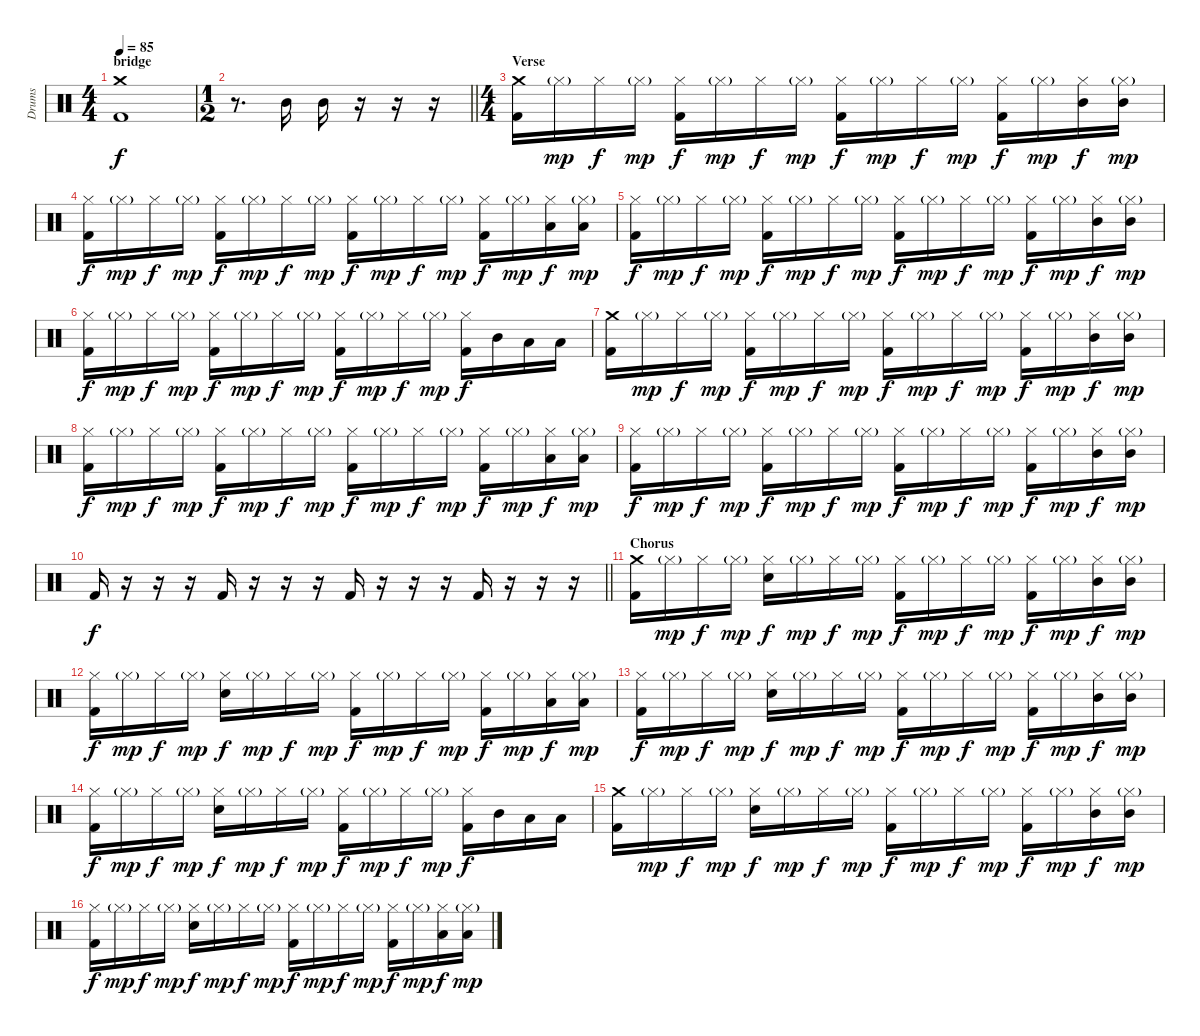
\track ("Drums" "Drums") {instrument percussion}
\staff {score}
\articulation defaults
\ts (4 4)
\section ("" "bridge")
\tempo 85
\clef neutral
\ks c
("Kick (hit) 2" "Crash medium (hit)").1{dy f} |
\ts (1 2)
\barLineRight lightlight
r.8{d} "Mid Tom (hit)".16 "Mid Tom (hit)".16 r.16 r.16 r.16 |
\ts (4 4)
\section ("" "Verse")
("Kick (hit) 2" "Crash medium (hit)").16 "Hi-Hat (closed)"{g}.16{dy mp} "Hi-Hat (closed)".16{dy f} "Hi-Hat (closed)"{g}.16{dy mp} ("Kick (hit) 2" "Hi-Hat (closed)").16{dy f} "Hi-Hat (closed)"{g}.16{dy mp} "Hi-Hat (closed)".16{dy f} "Hi-Hat (closed)"{g}.16{dy mp} ("Kick (hit) 2" "Hi-Hat (closed)").16{dy f} "Hi-Hat (closed)"{g}.16{dy mp} "Hi-Hat (closed)".16{dy f} "Hi-Hat (closed)"{g}.16{dy mp} ("Kick (hit) 2" "Hi-Hat (closed)").16{dy f} "Hi-Hat (closed)"{g}.16{dy mp} ("Hi-Hat (closed)" "Mid Tom (hit)").16{dy f} ("Hi-Hat (closed)"{g} "Mid Tom (hit)").16{dy mp} |
("Kick (hit) 2" "Hi-Hat (closed)").16{dy f} "Hi-Hat (closed)"{g}.16{dy mp} "Hi-Hat (closed)".16{dy f} "Hi-Hat (closed)"{g}.16{dy mp} ("Kick (hit) 2" "Hi-Hat (closed)").16{dy f} "Hi-Hat (closed)"{g}.16{dy mp} "Hi-Hat (closed)".16{dy f} "Hi-Hat (closed)"{g}.16{dy mp} ("Kick (hit) 2" "Hi-Hat (closed)").16{dy f} "Hi-Hat (closed)"{g}.16{dy mp} "Hi-Hat (closed)".16{dy f} "Hi-Hat (closed)"{g}.16{dy mp} ("Kick (hit) 2" "Hi-Hat (closed)").16{dy f} "Hi-Hat (closed)"{g}.16{dy mp} ("Hi-Hat (closed)" "Low Tom (hit)").16{dy f} ("Hi-Hat (closed)"{g} "Low Tom (hit)").16{dy mp} |
("Kick (hit) 2" "Hi-Hat (closed)").16{dy f} "Hi-Hat (closed)"{g}.16{dy mp} "Hi-Hat (closed)".16{dy f} "Hi-Hat (closed)"{g}.16{dy mp} ("Kick (hit) 2" "Hi-Hat (closed)").16{dy f} "Hi-Hat (closed)"{g}.16{dy mp} "Hi-Hat (closed)".16{dy f} "Hi-Hat (closed)"{g}.16{dy mp} ("Kick (hit) 2" "Hi-Hat (closed)").16{dy f} "Hi-Hat (closed)"{g}.16{dy mp} "Hi-Hat (closed)".16{dy f} "Hi-Hat (closed)"{g}.16{dy mp} ("Kick (hit) 2" "Hi-Hat (closed)").16{dy f} "Hi-Hat (closed)"{g}.16{dy mp} ("Hi-Hat (closed)" "Mid Tom (hit)").16{dy f} ("Hi-Hat (closed)"{g} "Mid Tom (hit)").16{dy mp} |
("Kick (hit) 2" "Hi-Hat (closed)").16{dy f} "Hi-Hat (closed)"{g}.16{dy mp} "Hi-Hat (closed)".16{dy f} "Hi-Hat (closed)"{g}.16{dy mp} ("Kick (hit) 2" "Hi-Hat (closed)").16{dy f} "Hi-Hat (closed)"{g}.16{dy mp} "Hi-Hat (closed)".16{dy f} "Hi-Hat (closed)"{g}.16{dy mp} ("Kick (hit) 2" "Hi-Hat (closed)").16{dy f} "Hi-Hat (closed)"{g}.16{dy mp} "Hi-Hat (closed)".16{dy f} "Hi-Hat (closed)"{g}.16{dy mp} ("Kick (hit) 2" "Hi-Hat (closed)").16{dy f} "Mid Tom (hit)".16 "Low Tom (hit)".16 "Low Tom (hit)".16 |
("Kick (hit) 2" "Crash medium (hit)").16 "Hi-Hat (closed)"{g}.16{dy mp} "Hi-Hat (closed)".16{dy f} "Hi-Hat (closed)"{g}.16{dy mp} ("Kick (hit) 2" "Hi-Hat (closed)").16{dy f} "Hi-Hat (closed)"{g}.16{dy mp} "Hi-Hat (closed)".16{dy f} "Hi-Hat (closed)"{g}.16{dy mp} ("Kick (hit) 2" "Hi-Hat (closed)").16{dy f} "Hi-Hat (closed)"{g}.16{dy mp} "Hi-Hat (closed)".16{dy f} "Hi-Hat (closed)"{g}.16{dy mp} ("Kick (hit) 2" "Hi-Hat (closed)").16{dy f} "Hi-Hat (closed)"{g}.16{dy mp} ("Hi-Hat (closed)" "Mid Tom (hit)").16{dy f} ("Hi-Hat (closed)"{g} "Mid Tom (hit)").16{dy mp} |
("Kick (hit) 2" "Hi-Hat (closed)").16{dy f} "Hi-Hat (closed)"{g}.16{dy mp} "Hi-Hat (closed)".16{dy f} "Hi-Hat (closed)"{g}.16{dy mp} ("Kick (hit) 2" "Hi-Hat (closed)").16{dy f} "Hi-Hat (closed)"{g}.16{dy mp} "Hi-Hat (closed)".16{dy f} "Hi-Hat (closed)"{g}.16{dy mp} ("Kick (hit) 2" "Hi-Hat (closed)").16{dy f} "Hi-Hat (closed)"{g}.16{dy mp} "Hi-Hat (closed)".16{dy f} "Hi-Hat (closed)"{g}.16{dy mp} ("Kick (hit) 2" "Hi-Hat (closed)").16{dy f} "Hi-Hat (closed)"{g}.16{dy mp} ("Hi-Hat (closed)" "Low Tom (hit)").16{dy f} ("Hi-Hat (closed)"{g} "Low Tom (hit)").16{dy mp} |
("Kick (hit) 2" "Hi-Hat (closed)").16{dy f} "Hi-Hat (closed)"{g}.16{dy mp} "Hi-Hat (closed)".16{dy f} "Hi-Hat (closed)"{g}.16{dy mp} ("Kick (hit) 2" "Hi-Hat (closed)").16{dy f} "Hi-Hat (closed)"{g}.16{dy mp} "Hi-Hat (closed)".16{dy f} "Hi-Hat (closed)"{g}.16{dy mp} ("Kick (hit) 2" "Hi-Hat (closed)").16{dy f} "Hi-Hat (closed)"{g}.16{dy mp} "Hi-Hat (closed)".16{dy f} "Hi-Hat (closed)"{g}.16{dy mp} ("Kick (hit) 2" "Hi-Hat (closed)").16{dy f} "Hi-Hat (closed)"{g}.16{dy mp} ("Hi-Hat (closed)" "Mid Tom (hit)").16{dy f} ("Hi-Hat (closed)"{g} "Mid Tom (hit)").16{dy mp} |
\barLineRight lightlight "Kick (hit) 2".16{dy f}
r.16 r.16 r.16 "Kick (hit) 2".16 r.16 r.16 r.16 "Kick (hit) 2".16 r.16 r.16 r.16 "Kick (hit) 2".16 r.16 r.16 r.16 |
\section ("" "Chorus")
("Kick (hit) 2" "Crash medium (hit)").16 "Hi-Hat (closed)"{g}.16{dy mp} "Hi-Hat (closed)".16{dy f} "Hi-Hat (closed)"{g}.16{dy mp} ("Electric Snare (hit)" "Hi-Hat (closed)").16{dy f} "Hi-Hat (closed)"{g}.16{dy mp} "Hi-Hat (closed)".16{dy f} "Hi-Hat (closed)"{g}.16{dy mp} ("Kick (hit) 2" "Hi-Hat (closed)").16{dy f} "Hi-Hat (closed)"{g}.16{dy mp} "Hi-Hat (closed)".16{dy f} "Hi-Hat (closed)"{g}.16{dy mp} ("Kick (hit) 2" "Hi-Hat (closed)").16{dy f} "Hi-Hat (closed)"{g}.16{dy mp} ("Hi-Hat (closed)" "Mid Tom (hit)").16{dy f} ("Hi-Hat (closed)"{g} "Mid Tom (hit)").16{dy mp} |
("Kick (hit) 2" "Hi-Hat (closed)").16{dy f} "Hi-Hat (closed)"{g}.16{dy mp} "Hi-Hat (closed)".16{dy f} "Hi-Hat (closed)"{g}.16{dy mp} ("Electric Snare (hit)" "Hi-Hat (closed)").16{dy f} "Hi-Hat (closed)"{g}.16{dy mp} "Hi-Hat (closed)".16{dy f} "Hi-Hat (closed)"{g}.16{dy mp} ("Kick (hit) 2" "Hi-Hat (closed)").16{dy f} "Hi-Hat (closed)"{g}.16{dy mp} "Hi-Hat (closed)".16{dy f} "Hi-Hat (closed)"{g}.16{dy mp} ("Kick (hit) 2" "Hi-Hat (closed)").16{dy f} "Hi-Hat (closed)"{g}.16{dy mp} ("Hi-Hat (closed)" "Low Tom (hit)").16{dy f} ("Hi-Hat (closed)"{g} "Low Tom (hit)").16{dy mp} |
("Kick (hit) 2" "Hi-Hat (closed)").16{dy f} "Hi-Hat (closed)"{g}.16{dy mp} "Hi-Hat (closed)".16{dy f} "Hi-Hat (closed)"{g}.16{dy mp} ("Electric Snare (hit)" "Hi-Hat (closed)").16{dy f} "Hi-Hat (closed)"{g}.16{dy mp} "Hi-Hat (closed)".16{dy f} "Hi-Hat (closed)"{g}.16{dy mp} ("Kick (hit) 2" "Hi-Hat (closed)").16{dy f} "Hi-Hat (closed)"{g}.16{dy mp} "Hi-Hat (closed)".16{dy f} "Hi-Hat (closed)"{g}.16{dy mp} ("Kick (hit) 2" "Hi-Hat (closed)").16{dy f} "Hi-Hat (closed)"{g}.16{dy mp} ("Hi-Hat (closed)" "Mid Tom (hit)").16{dy f} ("Hi-Hat (closed)"{g} "Mid Tom (hit)").16{dy mp} |
("Kick (hit) 2" "Hi-Hat (closed)").16{dy f} "Hi-Hat (closed)"{g}.16{dy mp} "Hi-Hat (closed)".16{dy f} "Hi-Hat (closed)"{g}.16{dy mp} ("Electric Snare (hit)" "Hi-Hat (closed)").16{dy f} "Hi-Hat (closed)"{g}.16{dy mp} "Hi-Hat (closed)".16{dy f} "Hi-Hat (closed)"{g}.16{dy mp} ("Kick (hit) 2" "Hi-Hat (closed)").16{dy f} "Hi-Hat (closed)"{g}.16{dy mp} "Hi-Hat (closed)".16{dy f} "Hi-Hat (closed)"{g}.16{dy mp} ("Kick (hit) 2" "Hi-Hat (closed)").16{dy f} "Mid Tom (hit)".16 "Low Tom (hit)".16 "Low Tom (hit)".16 |
("Kick (hit) 2" "Crash medium (hit)").16 "Hi-Hat (closed)"{g}.16{dy mp} "Hi-Hat (closed)".16{dy f} "Hi-Hat (closed)"{g}.16{dy mp} ("Electric Snare (hit)" "Hi-Hat (closed)").16{dy f} "Hi-Hat (closed)"{g}.16{dy mp} "Hi-Hat (closed)".16{dy f} "Hi-Hat (closed)"{g}.16{dy mp} ("Kick (hit) 2" "Hi-Hat (closed)").16{dy f} "Hi-Hat (closed)"{g}.16{dy mp} "Hi-Hat (closed)".16{dy f} "Hi-Hat (closed)"{g}.16{dy mp} ("Kick (hit) 2" "Hi-Hat (closed)").16{dy f} "Hi-Hat (closed)"{g}.16{dy mp} ("Hi-Hat (closed)" "Mid Tom (hit)").16{dy f} ("Hi-Hat (closed)"{g} "Mid Tom (hit)").16{dy mp} |
("Kick (hit) 2" "Hi-Hat (closed)").16{dy f} "Hi-Hat (closed)"{g}.16{dy mp} "Hi-Hat (closed)".16{dy f} "Hi-Hat (closed)"{g}.16{dy mp} ("Electric Snare (hit)" "Hi-Hat (closed)").16{dy f} "Hi-Hat (closed)"{g}.16{dy mp} "Hi-Hat (closed)".16{dy f} "Hi-Hat (closed)"{g}.16{dy mp} ("Kick (hit) 2" "Hi-Hat (closed)").16{dy f} "Hi-Hat (closed)"{g}.16{dy mp} "Hi-Hat (closed)".16{dy f} "Hi-Hat (closed)"{g}.16{dy mp} ("Kick (hit) 2" "Hi-Hat (closed)").16{dy f} "Hi-Hat (closed)"{g}.16{dy mp} ("Hi-Hat (closed)" "Low Tom (hit)").16{dy f} ("Hi-Hat (closed)"{g} "Low Tom (hit)").16{dy mp}
